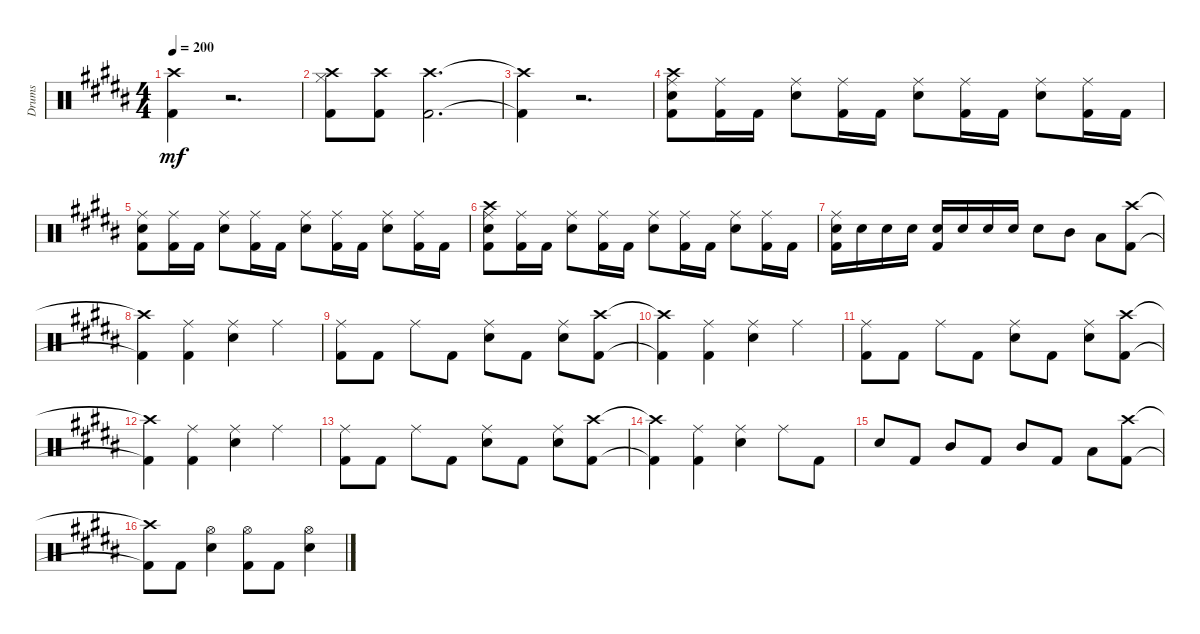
\track ("Drums" "Drums") {instrument percussion}
\staff {score}
\articulation defaults
\ts (4 4)
\tempo 200
\clef neutral
\ks b
("Kick (hit) 2"{t} "Crash high (hit)"{t}).4{dy mf} r.2{d} |
("Kick (hit) 2" "Hi-Hat (closed)" "Crash high (hit)").8 ("Kick (hit) 2" "Crash high (hit)").8 ("Kick (hit) 2" "Crash high (hit)").2{d} |
("Kick (hit) 2"{t} "Crash high (hit)"{t}).4 r.2{d} |
("Kick (hit) 2" "Snare (hit) 2" "Ride (middle)" "Crash high (hit)").8 ("Kick (hit) 2" "Ride (middle)").16 "Kick (hit) 2".16 ("Snare (hit) 2" "Ride (middle)").8 ("Kick (hit) 2" "Ride (middle)").16 "Kick (hit) 2".16 ("Snare (hit) 2" "Ride (middle)").8 ("Kick (hit) 2" "Ride (middle)").16 "Kick (hit) 2".16 ("Snare (hit) 2" "Ride (middle)").8 ("Kick (hit) 2" "Ride (middle)").16 "Kick (hit) 2".16 |
("Kick (hit) 2" "Snare (hit) 2" "Ride (middle)").8 ("Kick (hit) 2" "Ride (middle)").16 "Kick (hit) 2".16 ("Snare (hit) 2" "Ride (middle)").8 ("Kick (hit) 2" "Ride (middle)").16 "Kick (hit) 2".16 ("Snare (hit) 2" "Ride (middle)").8 ("Kick (hit) 2" "Ride (middle)").16 "Kick (hit) 2".16 ("Snare (hit) 2" "Ride (middle)").8 ("Kick (hit) 2" "Ride (middle)").16 "Kick (hit) 2".16 |
("Kick (hit) 2" "Snare (hit) 2" "Ride (middle)" "Crash high (hit)").8 ("Kick (hit) 2" "Ride (middle)").16 "Kick (hit) 2".16 ("Snare (hit) 2" "Ride (middle)").8 ("Kick (hit) 2" "Ride (middle)").16 "Kick (hit) 2".16 ("Snare (hit) 2" "Ride (middle)").8 ("Kick (hit) 2" "Ride (middle)").16 "Kick (hit) 2".16 ("Snare (hit) 2" "Ride (middle)").8 ("Kick (hit) 2" "Ride (middle)").16 "Kick (hit) 2".16 |
("Kick (hit) 2" "Snare (hit) 2" "Ride (middle)").16 "Snare (hit) 2".16 "Snare (hit) 2".16 "Snare (hit) 2".16 ("Kick (hit) 2" "Snare (hit) 2").16 "Snare (hit) 2".16 "Snare (hit) 2".16 "Snare (hit) 2".16 "Snare (hit) 2".8 "Mid Tom (hit)".8 "Low Tom (hit)".8 ("Kick (hit) 2" "Crash high (hit)").8 |
("Kick (hit) 2"{t} "Crash high (hit)"{t}).4 ("Kick (hit) 2" "Ride (middle)").4 ("Snare (hit) 2" "Ride (middle)").4 "Ride (middle)".4 |
("Kick (hit) 2" "Ride (middle)").8 "Kick (hit) 2".8 "Ride (middle)".8 "Kick (hit) 2".8 ("Snare (hit) 2" "Ride (middle)").8 "Kick (hit) 2".8 ("Snare (hit) 2" "Ride (middle)").8 ("Kick (hit) 2" "Crash high (hit)").8 |
("Kick (hit) 2"{t} "Crash high (hit)"{t}).4 ("Kick (hit) 2" "Ride (middle)").4 ("Snare (hit) 2" "Ride (middle)").4 "Ride (middle)".4 |
("Kick (hit) 2" "Ride (middle)").8 "Kick (hit) 2".8 "Ride (middle)".8 "Kick (hit) 2".8 ("Snare (hit) 2" "Ride (middle)").8 "Kick (hit) 2".8 ("Snare (hit) 2" "Ride (middle)").8 ("Kick (hit) 2" "Crash high (hit)").8 |
("Kick (hit) 2"{t} "Crash high (hit)"{t}).4 ("Kick (hit) 2" "Ride (middle)").4 ("Snare (hit) 2" "Ride (middle)").4 "Ride (middle)".4 |
("Kick (hit) 2" "Ride (middle)").8 "Kick (hit) 2".8 "Ride (middle)".8 "Kick (hit) 2".8 ("Snare (hit) 2" "Ride (middle)").8 "Kick (hit) 2".8 ("Snare (hit) 2" "Ride (middle)").8 ("Kick (hit) 2" "Crash high (hit)").8 |
("Kick (hit) 2"{t} "Crash high (hit)"{t}).4 ("Kick (hit) 2" "Ride (middle)").4 ("Snare (hit) 2" "Ride (middle)").4 "Ride (middle)".8 "Kick (hit) 2".8 |
"Snare (hit) 2".8 "Kick (hit) 2".8 "Mid Tom (hit)".8 "Kick (hit) 2".8 "Mid Tom (hit)".8 "Kick (hit) 2".8 "Low Tom (hit)".8 ("Kick (hit) 2" "Crash high (hit)").8 |
("Kick (hit) 2"{t} "Crash high (hit)"{t}).8 "Kick (hit) 2".8 ("Snare (hit) 2" "Hi-Hat (open)").4 ("Kick (hit) 2" "Hi-Hat (open)").8 "Kick (hit) 2".8 ("Snare (hit) 2" "Hi-Hat (open)").4
